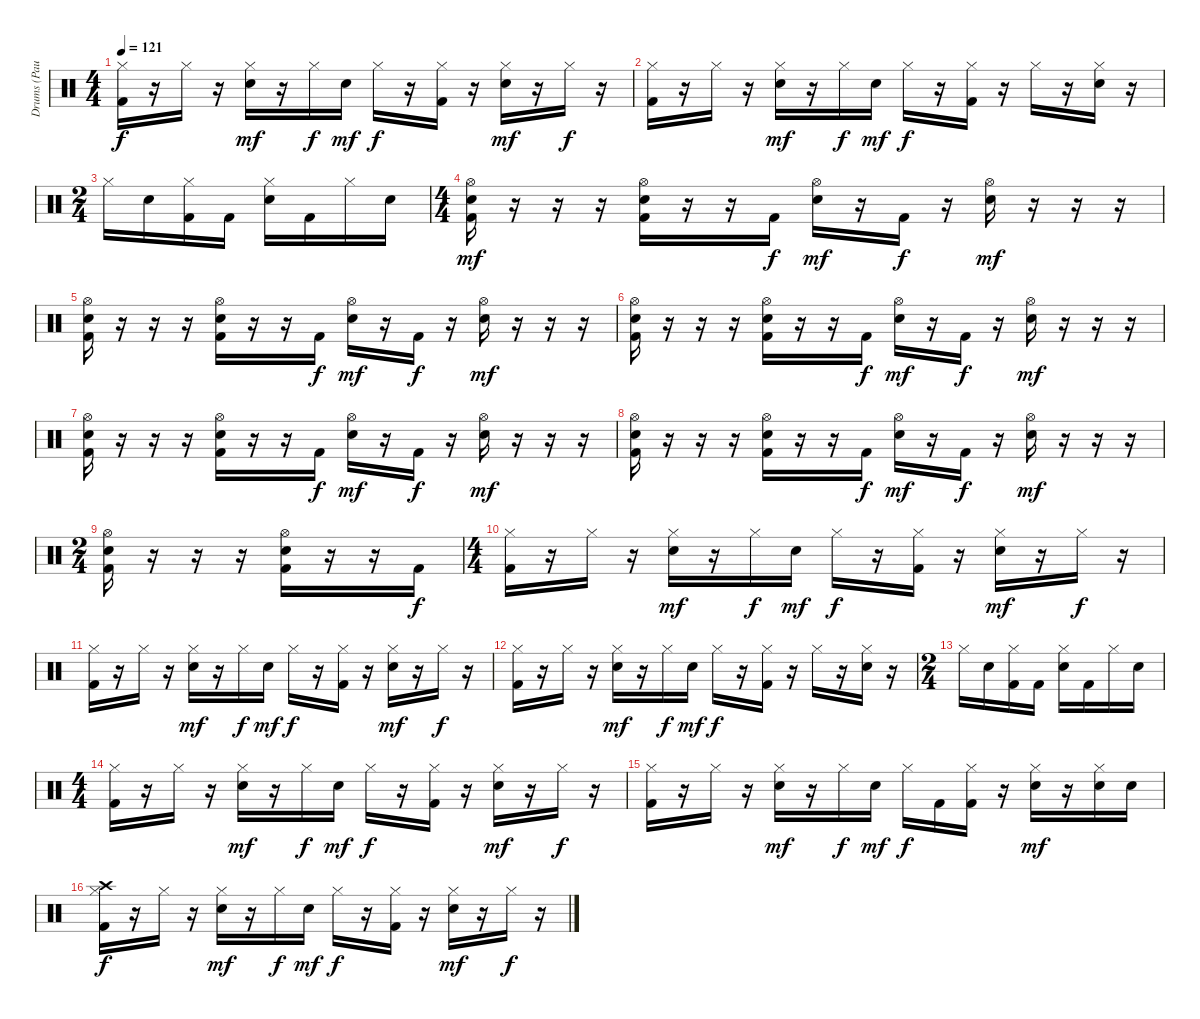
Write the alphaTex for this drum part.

\track ("Drums (Paul)" "Drums (Pau") {instrument percussion}
\staff {score}
\articulation defaults
\ts (4 4)
\tempo 121
\clef neutral
\ks c
("Hi-Hat (closed)" "Kick (hit) 2").16{dy f} r.16 "Hi-Hat (closed)".16 r.16 ("Hi-Hat (closed)" "Snare (hit) 2").16{dy mf} r.16 "Hi-Hat (closed)".16{dy f} "Snare (hit) 2".16{dy mf} "Hi-Hat (closed)".16{dy f} r.16 ("Hi-Hat (closed)" "Kick (hit) 2").16 r.16 ("Hi-Hat (closed)" "Snare (hit) 2").16{dy mf} r.16 "Hi-Hat (closed)".16{dy f} r.16 |
("Hi-Hat (closed)" "Kick (hit) 2").16 r.16 "Hi-Hat (closed)".16 r.16 ("Hi-Hat (closed)" "Snare (hit) 2").16{dy mf} r.16 "Hi-Hat (closed)".16{dy f} "Snare (hit) 2".16{dy mf} "Hi-Hat (closed)".16{dy f} r.16 ("Hi-Hat (closed)" "Kick (hit) 2").16 r.16 "Hi-Hat (closed)".16 r.16 ("Hi-Hat (closed)" "Snare (hit) 2").16 r.16 |
\ts (2 4)
"Hi-Hat (closed)".16 "Snare (hit) 2".16 ("Hi-Hat (closed)" "Kick (hit) 2").16 "Kick (hit) 2".16 ("Hi-Hat (closed)" "Snare (hit) 2").16 "Kick (hit) 2".16 "Hi-Hat (closed)".16 "Snare (hit) 2".16 |
\ts (4 4)
("Hi-Hat (open)" "Snare (hit) 2" "Kick (hit) 2").16{dy mf} r.16 r.16 r.16 ("Hi-Hat (open)" "Snare (hit) 2" "Kick (hit) 2").16 r.16 r.16 "Kick (hit) 2".16{dy f} ("Hi-Hat (open)" "Snare (hit) 2").16{dy mf} r.16 "Kick (hit) 2".16{dy f} r.16 ("Hi-Hat (open)" "Snare (hit) 2").16{dy mf} r.16 r.16 r.16 |
("Hi-Hat (open)" "Snare (hit) 2" "Kick (hit) 2").16 r.16 r.16 r.16 ("Hi-Hat (open)" "Snare (hit) 2" "Kick (hit) 2").16 r.16 r.16 "Kick (hit) 2".16{dy f} ("Hi-Hat (open)" "Snare (hit) 2").16{dy mf} r.16 "Kick (hit) 2".16{dy f} r.16 ("Hi-Hat (open)" "Snare (hit) 2").16{dy mf} r.16 r.16 r.16 |
("Hi-Hat (open)" "Snare (hit) 2" "Kick (hit) 2").16 r.16 r.16 r.16 ("Hi-Hat (open)" "Snare (hit) 2" "Kick (hit) 2").16 r.16 r.16 "Kick (hit) 2".16{dy f} ("Hi-Hat (open)" "Snare (hit) 2").16{dy mf} r.16 "Kick (hit) 2".16{dy f} r.16 ("Hi-Hat (open)" "Snare (hit) 2").16{dy mf} r.16 r.16 r.16 |
("Hi-Hat (open)" "Snare (hit) 2" "Kick (hit) 2").16 r.16 r.16 r.16 ("Hi-Hat (open)" "Snare (hit) 2" "Kick (hit) 2").16 r.16 r.16 "Kick (hit) 2".16{dy f} ("Hi-Hat (open)" "Snare (hit) 2").16{dy mf} r.16 "Kick (hit) 2".16{dy f} r.16 ("Hi-Hat (open)" "Snare (hit) 2").16{dy mf} r.16 r.16 r.16 |
("Hi-Hat (open)" "Snare (hit) 2" "Kick (hit) 2").16 r.16 r.16 r.16 ("Hi-Hat (open)" "Snare (hit) 2" "Kick (hit) 2").16 r.16 r.16 "Kick (hit) 2".16{dy f} ("Hi-Hat (open)" "Snare (hit) 2").16{dy mf} r.16 "Kick (hit) 2".16{dy f} r.16 ("Hi-Hat (open)" "Snare (hit) 2").16{dy mf} r.16 r.16 r.16 |
\ts (2 4)
("Hi-Hat (open)" "Snare (hit) 2" "Kick (hit) 2").16 r.16 r.16 r.16 ("Hi-Hat (open)" "Snare (hit) 2" "Kick (hit) 2").16 r.16 r.16 "Kick (hit) 2".16{dy f} |
\ts (4 4)
("Hi-Hat (closed)" "Kick (hit) 2").16 r.16 "Hi-Hat (closed)".16 r.16 ("Hi-Hat (closed)" "Snare (hit) 2").16{dy mf} r.16 "Hi-Hat (closed)".16{dy f} "Snare (hit) 2".16{dy mf} "Hi-Hat (closed)".16{dy f} r.16 ("Hi-Hat (closed)" "Kick (hit) 2").16 r.16 ("Hi-Hat (closed)" "Snare (hit) 2").16{dy mf} r.16 "Hi-Hat (closed)".16{dy f} r.16 |
("Hi-Hat (closed)" "Kick (hit) 2").16 r.16 "Hi-Hat (closed)".16 r.16 ("Hi-Hat (closed)" "Snare (hit) 2").16{dy mf} r.16 "Hi-Hat (closed)".16{dy f} "Snare (hit) 2".16{dy mf} "Hi-Hat (closed)".16{dy f} r.16 ("Hi-Hat (closed)" "Kick (hit) 2").16 r.16 ("Hi-Hat (closed)" "Snare (hit) 2").16{dy mf} r.16 "Hi-Hat (closed)".16{dy f} r.16 |
("Hi-Hat (closed)" "Kick (hit) 2").16 r.16 "Hi-Hat (closed)".16 r.16 ("Hi-Hat (closed)" "Snare (hit) 2").16{dy mf} r.16 "Hi-Hat (closed)".16{dy f} "Snare (hit) 2".16{dy mf} "Hi-Hat (closed)".16{dy f} r.16 ("Hi-Hat (closed)" "Kick (hit) 2").16 r.16 "Hi-Hat (closed)".16 r.16 ("Hi-Hat (closed)" "Snare (hit) 2").16 r.16 |
\ts (2 4)
"Hi-Hat (closed)".16 "Snare (hit) 2".16 ("Hi-Hat (closed)" "Kick (hit) 2").16 "Kick (hit) 2".16 ("Hi-Hat (closed)" "Snare (hit) 2").16 "Kick (hit) 2".16 "Hi-Hat (closed)".16 "Snare (hit) 2".16 |
\ts (4 4)
("Hi-Hat (closed)" "Kick (hit) 2").16 r.16 "Hi-Hat (closed)".16 r.16 ("Hi-Hat (closed)" "Snare (hit) 2").16{dy mf} r.16 "Hi-Hat (closed)".16{dy f} "Snare (hit) 2".16{dy mf} "Hi-Hat (closed)".16{dy f} r.16 ("Hi-Hat (closed)" "Kick (hit) 2").16 r.16 ("Hi-Hat (closed)" "Snare (hit) 2").16{dy mf} r.16 "Hi-Hat (closed)".16{dy f} r.16 |
("Hi-Hat (closed)" "Kick (hit) 2").16 r.16 "Hi-Hat (closed)".16 r.16 ("Hi-Hat (closed)" "Snare (hit) 2").16{dy mf} r.16 "Hi-Hat (closed)".16{dy f} "Snare (hit) 2".16{dy mf} "Hi-Hat (closed)".16{dy f} "Kick (hit) 2".16 ("Hi-Hat (closed)" "Kick (hit) 2").16 r.16 ("Hi-Hat (closed)" "Snare (hit) 2").16{dy mf} r.16 ("Hi-Hat (closed)" "Snare (hit) 2").16 "Snare (hit) 2".16 |
("Hi-Hat (closed)" "Crash high (hit)" "Kick (hit) 2").16{dy f} r.16 "Hi-Hat (closed)".16 r.16 ("Hi-Hat (closed)" "Snare (hit) 2").16{dy mf} r.16 "Hi-Hat (closed)".16{dy f} "Snare (hit) 2".16{dy mf} "Hi-Hat (closed)".16{dy f} r.16 ("Hi-Hat (closed)" "Kick (hit) 2").16 r.16 ("Hi-Hat (closed)" "Snare (hit) 2").16{dy mf} r.16 "Hi-Hat (closed)".16{dy f} r.16
